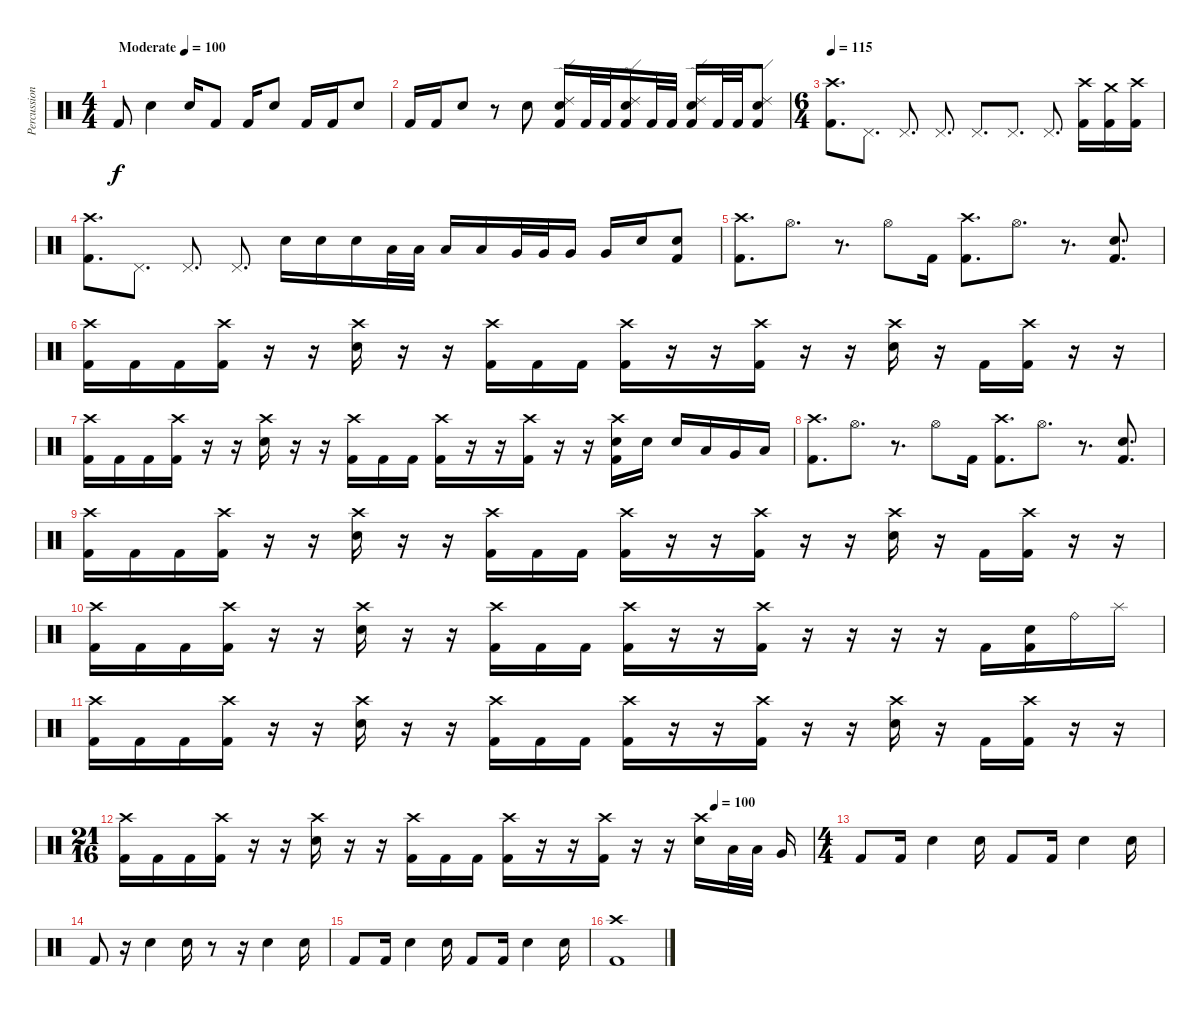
\track ("Percussion" "Percussion") {instrument percussion}
\staff {score}
\articulation defaults
\ts (4 4)
\tempo (100 "Moderate")
\clef neutral
\ks c "Kick (hit) 2".8{dy f} "Electric Snare (hit)".4 "Electric Snare (hit)".16 "Kick (hit) 2".8 "Kick (hit) 2".16 "Electric Snare (hit)".8 "Kick (hit) 2".16 "Kick (hit) 2".16 "Electric Snare (hit)".8
|
"Kick (hit) 2".16 "Kick (hit) 2".16 "Electric Snare (hit)".8 r.8 "Electric Snare (hit)".8 ("Ride (edge) 2" "Electric Snare (hit)" "Kick (hit) 2").16 "Kick (hit) 2".32 "Kick (hit) 2".32 ("Ride (edge) 2" "Electric Snare (hit)" "Kick (hit) 2").16 "Kick (hit) 2".32 "Kick (hit) 2".32 ("Ride (edge) 2" "Electric Snare (hit)" "Kick (hit) 2").16 "Kick (hit) 2".32 "Kick (hit) 2".32 ("Ride (edge) 2" "Electric Snare (hit)" "Kick (hit) 2").8 |
\ts (6 4)
\tempo 115
("Crash high (hit)" "Kick (hit) 2").8{d} "Pedal Hi-Hat (hit)".8{d} "Pedal Hi-Hat (hit)".8{d} "Pedal Hi-Hat (hit)".8{d} "Pedal Hi-Hat (hit)".8{d} "Pedal Hi-Hat (hit)".8{d} "Pedal Hi-Hat (hit)".8{d} ("Crash high (hit)" "Kick (hit) 2").16 ("Crash medium (hit)" "Kick (hit) 2").16 ("Crash high (hit)" "Kick (hit) 2").16 |
("Crash high (hit)" "Kick (hit) 2").8{d} "Pedal Hi-Hat (hit)".8{d} "Pedal Hi-Hat (hit)".8{d} "Pedal Hi-Hat (hit)".8{d} "Electric Snare (hit)".16 "Electric Snare (hit)".16 "Electric Snare (hit)".16 "Low Tom (hit)".32 "Low Tom (hit)".32 "Low Tom (hit)".16 "Low Tom (hit)".16 "Very Low Tom (hit)".32 "Very Low Tom (hit)".32 "Very Low Tom (hit)".16 "Very Low Tom (hit)".16 "Electric Snare (hit)".16 ("Electric Snare (hit)" "Kick (hit) 2").8 |
("Crash high (hit)" "Kick (hit) 2").8{d} "Hi-Hat (open)".8{d} r.8{d} "Hi-Hat (open)".8 "Kick (hit) 2".16 ("Crash high (hit)" "Kick (hit) 2").8{d} "Hi-Hat (open)".8{d} r.8{d} ("Electric Snare (hit)" "Kick (hit) 2").8{d} |
("Crash high (hit)" "Kick (hit) 2").16 "Kick (hit) 2".16 "Kick (hit) 2".16 ("Crash high (hit)" "Kick (hit) 2").16 r.16 r.16 ("Crash high (hit)" "Electric Snare (hit)").16 r.16 r.16 ("Crash high (hit)" "Kick (hit) 2").16 "Kick (hit) 2".16 "Kick (hit) 2".16 ("Crash high (hit)" "Kick (hit) 2").16 r.16 r.16 ("Crash high (hit)" "Kick (hit) 2").16 r.16 r.16 ("Crash high (hit)" "Electric Snare (hit)").16 r.16 "Kick (hit) 2".16 ("Crash high (hit)" "Kick (hit) 2").16 r.16 r.16 |
("Crash high (hit)" "Kick (hit) 2").16 "Kick (hit) 2".16 "Kick (hit) 2".16 ("Crash high (hit)" "Kick (hit) 2").16 r.16 r.16 ("Crash high (hit)" "Electric Snare (hit)").16 r.16 r.16 ("Crash high (hit)" "Kick (hit) 2").16 "Kick (hit) 2".16 "Kick (hit) 2".16 ("Crash high (hit)" "Kick (hit) 2").16 r.16 r.16 ("Crash high (hit)" "Kick (hit) 2").16 r.16 r.16 ("Crash high (hit)" "Electric Snare (hit)" "Kick (hit) 2").16 "Electric Snare (hit)".16 "Electric Snare (hit)".16 "Low Tom (hit)".16 "Very Low Tom (hit)".16 "Low Floor Tom (hit)".16 |
("Crash high (hit)" "Kick (hit) 2").8{d} "Hi-Hat (open)".8{d} r.8{d} "Hi-Hat (open)".8 "Kick (hit) 2".16 ("Crash high (hit)" "Kick (hit) 2").8{d} "Hi-Hat (open)".8{d} r.8{d} ("Electric Snare (hit)" "Kick (hit) 2").8{d} |
("Crash high (hit)" "Kick (hit) 2").16 "Kick (hit) 2".16 "Kick (hit) 2".16 ("Crash high (hit)" "Kick (hit) 2").16 r.16 r.16 ("Crash high (hit)" "Electric Snare (hit)").16 r.16 r.16 ("Crash high (hit)" "Kick (hit) 2").16 "Kick (hit) 2".16 "Kick (hit) 2".16 ("Crash high (hit)" "Kick (hit) 2").16 r.16 r.16 ("Crash high (hit)" "Kick (hit) 2").16 r.16 r.16 ("Crash high (hit)" "Electric Snare (hit)").16 r.16 "Kick (hit) 2".16 ("Crash high (hit)" "Kick (hit) 2").16 r.16 r.16 |
("Crash high (hit)" "Kick (hit) 2").16 "Kick (hit) 2".16 "Kick (hit) 2".16 ("Crash high (hit)" "Kick (hit) 2").16 r.16 r.16 ("Crash high (hit)" "Electric Snare (hit)").16 r.16 r.16 ("Crash high (hit)" "Kick (hit) 2").16 "Kick (hit) 2".16 "Kick (hit) 2".16 ("Crash high (hit)" "Kick (hit) 2").16 r.16 r.16 ("Crash high (hit)" "Kick (hit) 2").16 r.16 r.16 r.16 r.16 "Kick (hit) 2".16 ("Electric Snare (hit)" "Kick (hit) 2").16 "Ride (bell)".16 "Splash (hit)".16 |
("Crash high (hit)" "Kick (hit) 2").16 "Kick (hit) 2".16 "Kick (hit) 2".16 ("Crash high (hit)" "Kick (hit) 2").16 r.16 r.16 ("Crash high (hit)" "Electric Snare (hit)").16 r.16 r.16 ("Crash high (hit)" "Kick (hit) 2").16 "Kick (hit) 2".16 "Kick (hit) 2".16 ("Crash high (hit)" "Kick (hit) 2").16 r.16 r.16 ("Crash high (hit)" "Kick (hit) 2").16 r.16 r.16 ("Crash high (hit)" "Electric Snare (hit)").16 r.16 "Kick (hit) 2".16 ("Crash high (hit)" "Kick (hit) 2").16 r.16 r.16 |
\ts (21 16)
\tempo (100 0.8571428571428571)
("Crash high (hit)" "Kick (hit) 2").16 "Kick (hit) 2".16 "Kick (hit) 2".16 ("Crash high (hit)" "Kick (hit) 2").16 r.16 r.16 ("Crash high (hit)" "Electric Snare (hit)").16 r.16 r.16 ("Crash high (hit)" "Kick (hit) 2").16 "Kick (hit) 2".16 "Kick (hit) 2".16 ("Crash high (hit)" "Kick (hit) 2").16 r.16 r.16 ("Crash high (hit)" "Kick (hit) 2").16 r.16 r.16 ("Crash high (hit)" "Electric Snare (hit)").16 "Low Tom (hit)".32 "Low Tom (hit)".32 "Very Low Tom (hit)".16 |
\ts (4 4)
"Kick (hit) 2".8 "Kick (hit) 2".16 "Electric Snare (hit)".4 "Electric Snare (hit)".16 "Kick (hit) 2".8 "Kick (hit) 2".16 "Electric Snare (hit)".4 "Electric Snare (hit)".16 |
"Kick (hit) 2".8 r.16 "Electric Snare (hit)".4 "Electric Snare (hit)".16 r.8 r.16 "Electric Snare (hit)".4 "Electric Snare (hit)".16 |
"Kick (hit) 2".8 "Kick (hit) 2".16 "Electric Snare (hit)".4 "Electric Snare (hit)".16 "Kick (hit) 2".8 "Kick (hit) 2".16 "Electric Snare (hit)".4 "Electric Snare (hit)".16 |
("Crash high (hit)" "Kick (hit) 2").1
